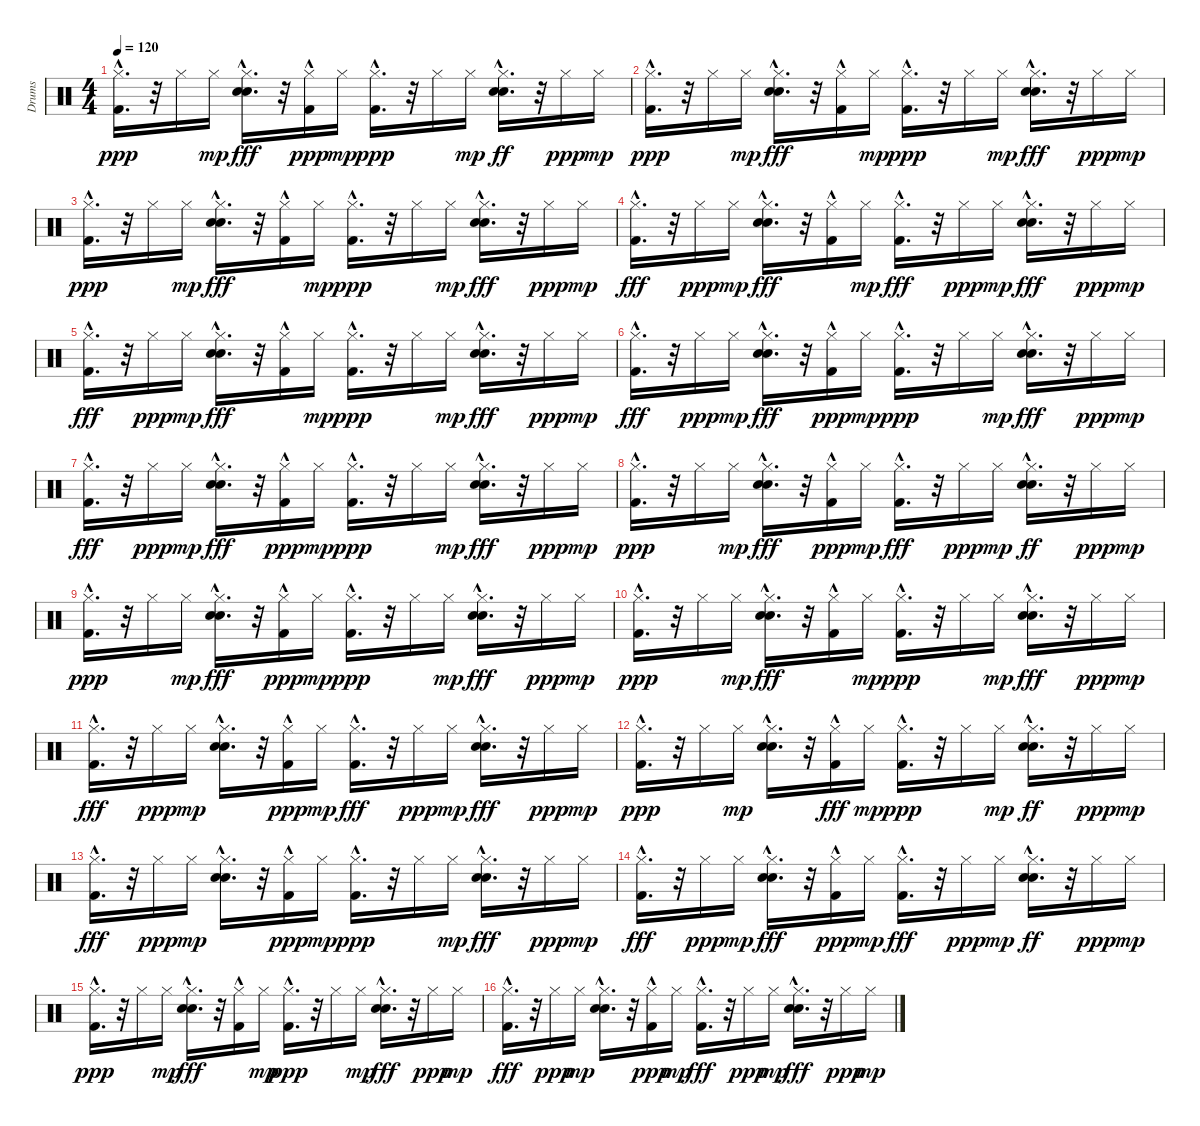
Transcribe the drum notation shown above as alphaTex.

\track ("Drums" "Drums") {instrument percussion}
\staff {score}
\articulation defaults
\ts (4 4)
\tempo 120
\clef neutral
\ks c
("Kick (hit) 2"{hac} "Hi-Hat (closed)"{hac}).16{d dy ppp} r.32 "Hi-Hat (closed)".16 "Hi-Hat (closed)".16{dy mp} ("Hi-Hat (closed)"{hac} "Snare (hit) 2"{hac} "Hand Clap (hit)"{hac}).16{d dy fff} r.32 ("Kick (hit) 2"{hac} "Hi-Hat (closed)").16{dy ppp} "Hi-Hat (closed)".16{dy mp} ("Kick (hit) 2"{hac} "Hi-Hat (closed)"{hac}).16{d dy ppp} r.32 "Hi-Hat (closed)".16 "Hi-Hat (closed)".16{dy mp} ("Snare (hit) 2"{hac} "Hand Clap (hit)"{hac} "Hi-Hat (closed)"{hac}).16{d dy ff} r.32 "Hi-Hat (closed)".16{dy ppp} "Hi-Hat (closed)".16{dy mp} |
("Kick (hit) 2"{hac} "Hi-Hat (closed)"{hac}).16{d dy ppp} r.32 "Hi-Hat (closed)".16 "Hi-Hat (closed)".16{dy mp} ("Hi-Hat (closed)"{hac} "Snare (hit) 2"{hac} "Hand Clap (hit)"{hac}).16{d dy fff} r.32 ("Hi-Hat (closed)" "Kick (hit) 2"{hac}).16 "Hi-Hat (closed)".16{dy mp} ("Kick (hit) 2"{hac} "Hi-Hat (closed)"{hac}).16{d dy ppp} r.32 "Hi-Hat (closed)".16 "Hi-Hat (closed)".16{dy mp} ("Hi-Hat (closed)"{hac} "Snare (hit) 2"{hac} "Hand Clap (hit)"{hac}).16{d dy fff} r.32 "Hi-Hat (closed)".16{dy ppp} "Hi-Hat (closed)".16{dy mp} |
("Kick (hit) 2"{hac} "Hi-Hat (closed)"{hac}).16{d dy ppp} r.32 "Hi-Hat (closed)".16 "Hi-Hat (closed)".16{dy mp} ("Hi-Hat (closed)"{hac} "Snare (hit) 2"{hac} "Hand Clap (hit)"{hac}).16{d dy fff} r.32 ("Hi-Hat (closed)" "Kick (hit) 2"{hac}).16 "Hi-Hat (closed)".16{dy mp} ("Kick (hit) 2"{hac} "Hi-Hat (closed)"{hac}).16{d dy ppp} r.32 "Hi-Hat (closed)".16 "Hi-Hat (closed)".16{dy mp} ("Hand Clap (hit)"{hac} "Hi-Hat (closed)"{hac} "Snare (hit) 2"{hac}).16{d dy fff} r.32 "Hi-Hat (closed)".16{dy ppp} "Hi-Hat (closed)".16{dy mp} |
("Hi-Hat (closed)"{hac} "Kick (hit) 2"{hac}).16{d dy fff} r.32 "Hi-Hat (closed)".16{dy ppp} "Hi-Hat (closed)".16{dy mp} ("Hi-Hat (closed)"{hac} "Snare (hit) 2"{hac} "Hand Clap (hit)"{hac}).16{d dy fff} r.32 ("Hi-Hat (closed)" "Kick (hit) 2"{hac}).16 "Hi-Hat (closed)".16{dy mp} ("Hi-Hat (closed)"{hac} "Kick (hit) 2"{hac}).16{d dy fff} r.32 "Hi-Hat (closed)".16{dy ppp} "Hi-Hat (closed)".16{dy mp} ("Snare (hit) 2"{hac} "Hi-Hat (closed)"{hac} "Hand Clap (hit)"{hac}).16{d dy fff} r.32 "Hi-Hat (closed)".16{dy ppp} "Hi-Hat (closed)".16{dy mp} |
("Hi-Hat (closed)"{hac} "Kick (hit) 2"{hac}).16{d dy fff} r.32 "Hi-Hat (closed)".16{dy ppp} "Hi-Hat (closed)".16{dy mp} ("Hi-Hat (closed)"{hac} "Snare (hit) 2"{hac} "Hand Clap (hit)"{hac}).16{d dy fff} r.32 ("Hi-Hat (closed)" "Kick (hit) 2"{hac}).16 "Hi-Hat (closed)".16{dy mp} ("Kick (hit) 2"{hac} "Hi-Hat (closed)"{hac}).16{d dy ppp} r.32 "Hi-Hat (closed)".16 "Hi-Hat (closed)".16{dy mp} ("Hand Clap (hit)"{hac} "Hi-Hat (closed)"{hac} "Snare (hit) 2"{hac}).16{d dy fff} r.32 "Hi-Hat (closed)".16{dy ppp} "Hi-Hat (closed)".16{dy mp} |
("Hi-Hat (closed)"{hac} "Kick (hit) 2"{hac}).16{d dy fff} r.32 "Hi-Hat (closed)".16{dy ppp} "Hi-Hat (closed)".16{dy mp} ("Hi-Hat (closed)"{hac} "Snare (hit) 2"{hac} "Hand Clap (hit)"{hac}).16{d dy fff} r.32 ("Kick (hit) 2"{hac} "Hi-Hat (closed)").16{dy ppp} "Hi-Hat (closed)".16{dy mp} ("Kick (hit) 2"{hac} "Hi-Hat (closed)"{hac}).16{d dy ppp} r.32 "Hi-Hat (closed)".16 "Hi-Hat (closed)".16{dy mp} ("Hi-Hat (closed)"{hac} "Hand Clap (hit)"{hac} "Snare (hit) 2"{hac}).16{d dy fff} r.32 "Hi-Hat (closed)".16{dy ppp} "Hi-Hat (closed)".16{dy mp} |
("Hi-Hat (closed)"{hac} "Kick (hit) 2"{hac}).16{d dy fff} r.32 "Hi-Hat (closed)".16{dy ppp} "Hi-Hat (closed)".16{dy mp} ("Hand Clap (hit)"{hac} "Hi-Hat (closed)"{hac} "Snare (hit) 2"{hac}).16{d dy fff} r.32 ("Kick (hit) 2"{hac} "Hi-Hat (closed)").16{dy ppp} "Hi-Hat (closed)".16{dy mp} ("Kick (hit) 2"{hac} "Hi-Hat (closed)"{hac}).16{d dy ppp} r.32 "Hi-Hat (closed)".16 "Hi-Hat (closed)".16{dy mp} ("Snare (hit) 2"{hac} "Hi-Hat (closed)"{hac} "Hand Clap (hit)"{hac}).16{d dy fff} r.32 "Hi-Hat (closed)".16{dy ppp} "Hi-Hat (closed)".16{dy mp} |
("Kick (hit) 2"{hac} "Hi-Hat (closed)"{hac}).16{d dy ppp} r.32 "Hi-Hat (closed)".16 "Hi-Hat (closed)".16{dy mp} ("Hi-Hat (closed)"{hac} "Hand Clap (hit)"{hac} "Snare (hit) 2"{hac}).16{d dy fff} r.32 ("Kick (hit) 2"{hac} "Hi-Hat (closed)").16{dy ppp} "Hi-Hat (closed)".16{dy mp} ("Hi-Hat (closed)"{hac} "Kick (hit) 2"{hac}).16{d dy fff} r.32 "Hi-Hat (closed)".16{dy ppp} "Hi-Hat (closed)".16{dy mp} ("Snare (hit) 2"{hac} "Hand Clap (hit)"{hac} "Hi-Hat (closed)"{hac}).16{d dy ff} r.32 "Hi-Hat (closed)".16{dy ppp} "Hi-Hat (closed)".16{dy mp} |
("Kick (hit) 2"{hac} "Hi-Hat (closed)"{hac}).16{d dy ppp} r.32 "Hi-Hat (closed)".16 "Hi-Hat (closed)".16{dy mp} ("Hand Clap (hit)"{hac} "Hi-Hat (closed)"{hac} "Snare (hit) 2"{hac}).16{d dy fff} r.32 ("Kick (hit) 2"{hac} "Hi-Hat (closed)").16{dy ppp} "Hi-Hat (closed)".16{dy mp} ("Kick (hit) 2"{hac} "Hi-Hat (closed)"{hac}).16{d dy ppp} r.32 "Hi-Hat (closed)".16 "Hi-Hat (closed)".16{dy mp} ("Snare (hit) 2"{hac} "Hi-Hat (closed)"{hac} "Hand Clap (hit)"{hac}).16{d dy fff} r.32 "Hi-Hat (closed)".16{dy ppp} "Hi-Hat (closed)".16{dy mp} |
("Kick (hit) 2"{hac} "Hi-Hat (closed)"{hac}).16{d dy ppp} r.32 "Hi-Hat (closed)".16 "Hi-Hat (closed)".16{dy mp} ("Hi-Hat (closed)"{hac} "Snare (hit) 2"{hac} "Hand Clap (hit)"{hac}).16{d dy fff} r.32 ("Hi-Hat (closed)" "Kick (hit) 2"{hac}).16 "Hi-Hat (closed)".16{dy mp} ("Kick (hit) 2"{hac} "Hi-Hat (closed)"{hac}).16{d dy ppp} r.32 "Hi-Hat (closed)".16 "Hi-Hat (closed)".16{dy mp} ("Snare (hit) 2"{hac} "Hi-Hat (closed)"{hac} "Hand Clap (hit)"{hac}).16{d dy fff} r.32 "Hi-Hat (closed)".16{dy ppp} "Hi-Hat (closed)".16{dy mp} |
("Hi-Hat (closed)"{hac} "Kick (hit) 2"{hac}).16{d dy fff} r.32 "Hi-Hat (closed)".16{dy ppp} "Hi-Hat (closed)".16{dy mp} ("Snare (hit) 2"{hac} "Hand Clap (hit)"{hac} "Hi-Hat (closed)"{hac}).16{d} r.32 ("Kick (hit) 2"{hac} "Hi-Hat (closed)").16{dy ppp} "Hi-Hat (closed)".16{dy mp} ("Hi-Hat (closed)"{hac} "Kick (hit) 2"{hac}).16{d dy fff} r.32 "Hi-Hat (closed)".16{dy ppp} "Hi-Hat (closed)".16{dy mp} ("Hand Clap (hit)"{hac} "Hi-Hat (closed)"{hac} "Snare (hit) 2"{hac}).16{d dy fff} r.32 "Hi-Hat (closed)".16{dy ppp} "Hi-Hat (closed)".16{dy mp} |
("Kick (hit) 2"{hac} "Hi-Hat (closed)"{hac}).16{d dy ppp} r.32 "Hi-Hat (closed)".16 "Hi-Hat (closed)".16{dy mp} ("Hand Clap (hit)"{hac} "Snare (hit) 2"{hac} "Hi-Hat (closed)"{hac}).16{d} r.32 ("Hi-Hat (closed)" "Kick (hit) 2"{hac}).16{dy fff} "Hi-Hat (closed)".16{dy mp} ("Kick (hit) 2"{hac} "Hi-Hat (closed)"{hac}).16{d dy ppp} r.32 "Hi-Hat (closed)".16 "Hi-Hat (closed)".16{dy mp} ("Hand Clap (hit)"{hac} "Snare (hit) 2"{hac} "Hi-Hat (closed)"{hac}).16{d dy ff} r.32 "Hi-Hat (closed)".16{dy ppp} "Hi-Hat (closed)".16{dy mp} |
("Hi-Hat (closed)"{hac} "Kick (hit) 2"{hac}).16{d dy fff} r.32 "Hi-Hat (closed)".16{dy ppp} "Hi-Hat (closed)".16{dy mp} ("Snare (hit) 2"{hac} "Hand Clap (hit)"{hac} "Hi-Hat (closed)"{hac}).16{d} r.32 ("Kick (hit) 2"{hac} "Hi-Hat (closed)").16{dy ppp} "Hi-Hat (closed)".16{dy mp} ("Kick (hit) 2"{hac} "Hi-Hat (closed)"{hac}).16{d dy ppp} r.32 "Hi-Hat (closed)".16 "Hi-Hat (closed)".16{dy mp} ("Hi-Hat (closed)"{hac} "Hand Clap (hit)"{hac} "Snare (hit) 2"{hac}).16{d dy fff} r.32 "Hi-Hat (closed)".16{dy ppp} "Hi-Hat (closed)".16{dy mp} |
("Hi-Hat (closed)"{hac} "Kick (hit) 2"{hac}).16{d dy fff} r.32 "Hi-Hat (closed)".16{dy ppp} "Hi-Hat (closed)".16{dy mp} ("Hi-Hat (closed)"{hac} "Snare (hit) 2"{hac} "Hand Clap (hit)"{hac}).16{d dy fff} r.32 ("Kick (hit) 2"{hac} "Hi-Hat (closed)").16{dy ppp} "Hi-Hat (closed)".16{dy mp} ("Hi-Hat (closed)"{hac} "Kick (hit) 2"{hac}).16{d dy fff} r.32 "Hi-Hat (closed)".16{dy ppp} "Hi-Hat (closed)".16{dy mp} ("Snare (hit) 2"{hac} "Hand Clap (hit)"{hac} "Hi-Hat (closed)"{hac}).16{d dy ff} r.32 "Hi-Hat (closed)".16{dy ppp} "Hi-Hat (closed)".16{dy mp} |
("Kick (hit) 2"{hac} "Hi-Hat (closed)"{hac}).16{d dy ppp} r.32 "Hi-Hat (closed)".16 "Hi-Hat (closed)".16{dy mp} ("Hi-Hat (closed)"{hac} "Snare (hit) 2"{hac} "Hand Clap (hit)"{hac}).16{d dy fff} r.32 ("Hi-Hat (closed)" "Kick (hit) 2"{hac}).16 "Hi-Hat (closed)".16{dy mp} ("Kick (hit) 2"{hac} "Hi-Hat (closed)"{hac}).16{d dy ppp} r.32 "Hi-Hat (closed)".16 "Hi-Hat (closed)".16{dy mp} ("Snare (hit) 2"{hac} "Hi-Hat (closed)"{hac} "Hand Clap (hit)"{hac}).16{d dy fff} r.32 "Hi-Hat (closed)".16{dy ppp} "Hi-Hat (closed)".16{dy mp} |
("Hi-Hat (closed)"{hac} "Kick (hit) 2"{hac}).16{d dy fff} r.32 "Hi-Hat (closed)".16{dy ppp} "Hi-Hat (closed)".16{dy mp} ("Hand Clap (hit)"{hac} "Snare (hit) 2"{hac} "Hi-Hat (closed)"{hac}).16{d} r.32 ("Kick (hit) 2"{hac} "Hi-Hat (closed)").16{dy ppp} "Hi-Hat (closed)".16{dy mp} ("Hi-Hat (closed)"{hac} "Kick (hit) 2"{hac}).16{d dy fff} r.32 "Hi-Hat (closed)".16{dy ppp} "Hi-Hat (closed)".16{dy mp} ("Hi-Hat (closed)"{hac} "Hand Clap (hit)"{hac} "Snare (hit) 2"{hac}).16{d dy fff} r.32 "Hi-Hat (closed)".16{dy ppp} "Hi-Hat (closed)".16{dy mp}
